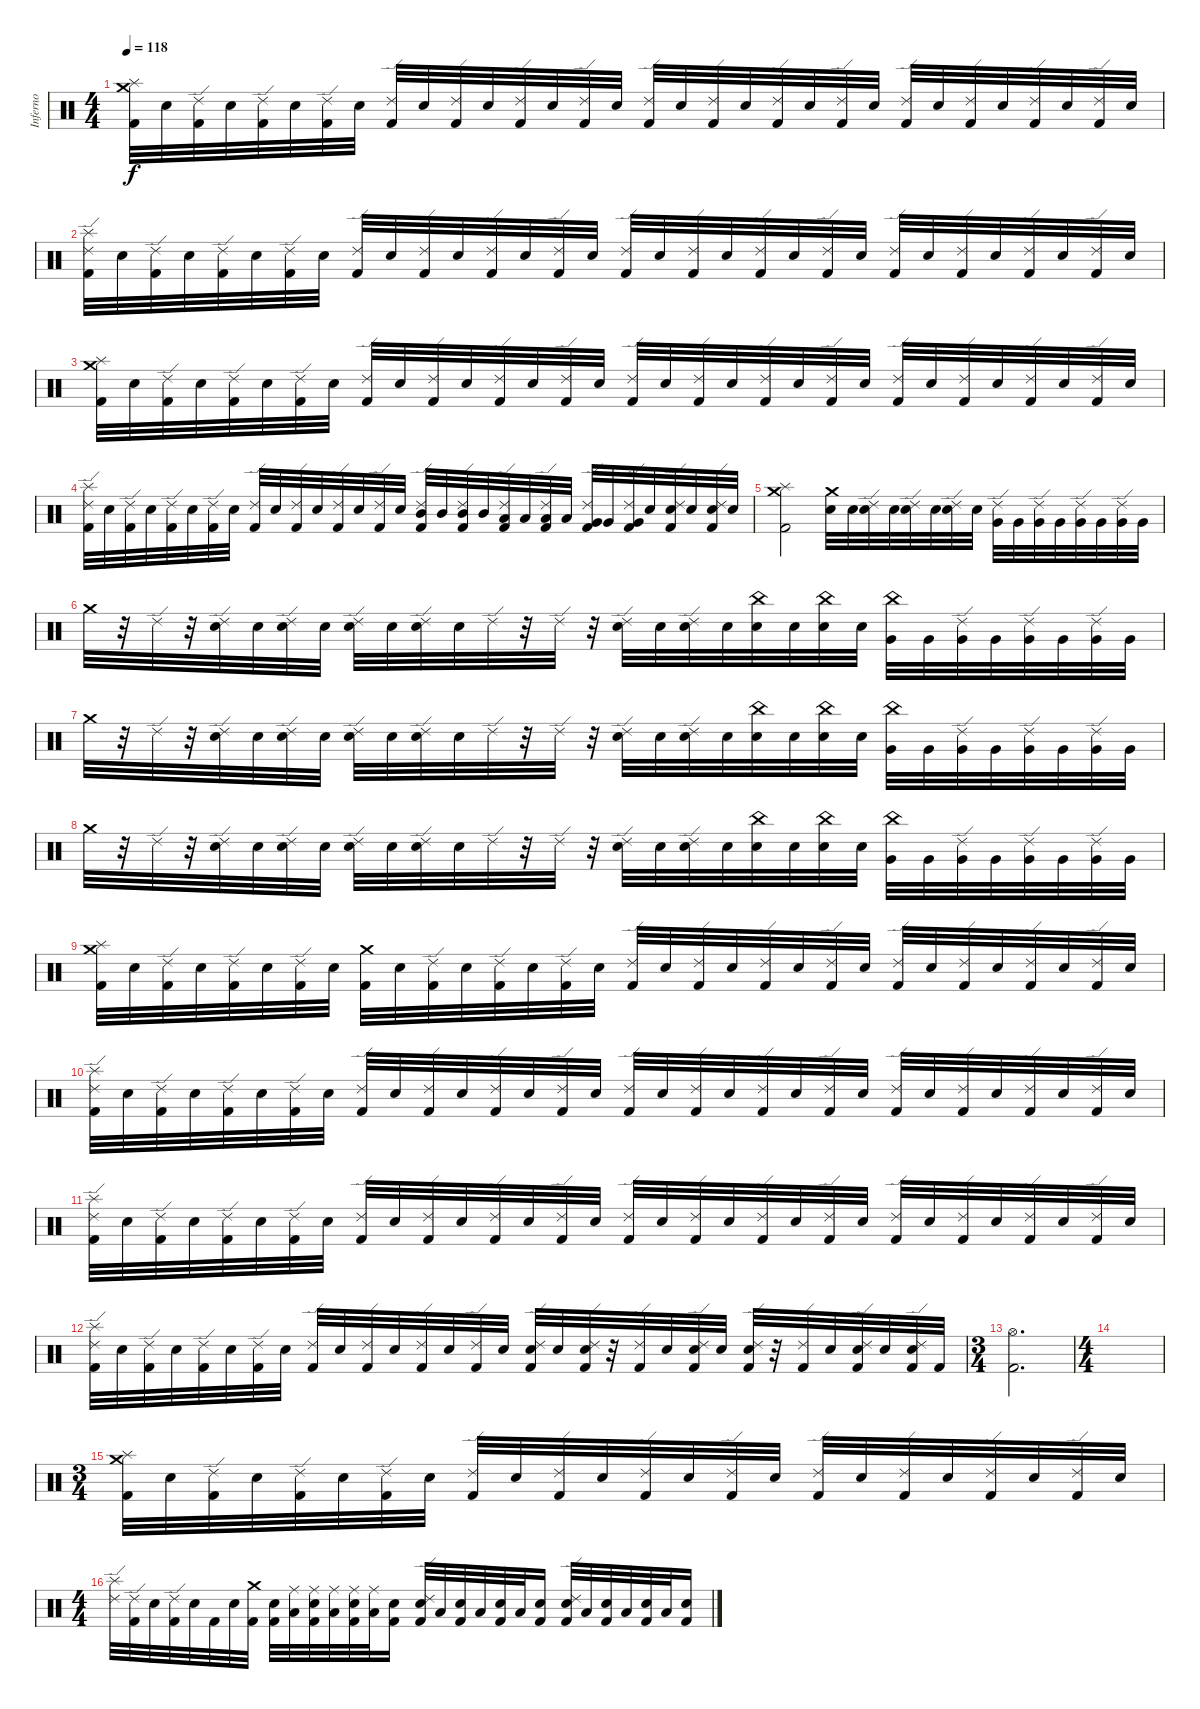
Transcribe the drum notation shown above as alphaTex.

\track ("Inferno" "Inferno") {instrument percussion}
\staff {score}
\articulation defaults
\ts (4 4)
\tempo 118
\clef neutral
\ks c
("Crash medium (hit)" "Splash (hit)" "Kick (hit) 2").32{dy f} "Electric Snare (hit)".32 ("Ride (edge) 2" "Kick (hit) 2").32 "Electric Snare (hit)".32 ("Ride (edge) 2" "Kick (hit) 2").32 "Electric Snare (hit)".32 ("Ride (edge) 2" "Kick (hit) 2").32 "Electric Snare (hit)".32 ("Ride (edge) 2" "Kick (hit) 2").32 "Electric Snare (hit)".32 ("Ride (edge) 2" "Kick (hit) 2").32 "Electric Snare (hit)".32 ("Ride (edge) 2" "Kick (hit) 2").32 "Electric Snare (hit)".32 ("Ride (edge) 2" "Kick (hit) 2").32 "Electric Snare (hit)".32 ("Ride (edge) 2" "Kick (hit) 2").32 "Electric Snare (hit)".32 ("Ride (edge) 2" "Kick (hit) 2").32 "Electric Snare (hit)".32 ("Ride (edge) 2" "Kick (hit) 2").32 "Electric Snare (hit)".32 ("Ride (edge) 2" "Kick (hit) 2").32 "Electric Snare (hit)".32 ("Ride (edge) 2" "Kick (hit) 2").32 "Electric Snare (hit)".32 ("Ride (edge) 2" "Kick (hit) 2").32 "Electric Snare (hit)".32 ("Ride (edge) 2" "Kick (hit) 2").32 "Electric Snare (hit)".32 ("Ride (edge) 2" "Kick (hit) 2").32 "Electric Snare (hit)".32 |
("Ride (edge) 2" "Splash (hit)" "Kick (hit) 2").32 "Electric Snare (hit)".32 ("Ride (edge) 2" "Kick (hit) 2").32 "Electric Snare (hit)".32 ("Ride (edge) 2" "Kick (hit) 2").32 "Electric Snare (hit)".32 ("Ride (edge) 2" "Kick (hit) 2").32 "Electric Snare (hit)".32 ("Ride (edge) 2" "Kick (hit) 2").32 "Electric Snare (hit)".32 ("Ride (edge) 2" "Kick (hit) 2").32 "Electric Snare (hit)".32 ("Ride (edge) 2" "Kick (hit) 2").32 "Electric Snare (hit)".32 ("Ride (edge) 2" "Kick (hit) 2").32 "Electric Snare (hit)".32 ("Ride (edge) 2" "Kick (hit) 2").32 "Electric Snare (hit)".32 ("Ride (edge) 2" "Kick (hit) 2").32 "Electric Snare (hit)".32 ("Ride (edge) 2" "Kick (hit) 2").32 "Electric Snare (hit)".32 ("Ride (edge) 2" "Kick (hit) 2").32 "Electric Snare (hit)".32 ("Ride (edge) 2" "Kick (hit) 2").32 "Electric Snare (hit)".32 ("Ride (edge) 2" "Kick (hit) 2").32 "Electric Snare (hit)".32 ("Ride (edge) 2" "Kick (hit) 2").32 "Electric Snare (hit)".32 ("Ride (edge) 2" "Kick (hit) 2").32 "Electric Snare (hit)".32 |
("Crash medium (hit)" "Splash (hit)" "Kick (hit) 2").32 "Electric Snare (hit)".32 ("Ride (edge) 2" "Kick (hit) 2").32 "Electric Snare (hit)".32 ("Ride (edge) 2" "Kick (hit) 2").32 "Electric Snare (hit)".32 ("Ride (edge) 2" "Kick (hit) 2").32 "Electric Snare (hit)".32 ("Ride (edge) 2" "Kick (hit) 2").32 "Electric Snare (hit)".32 ("Ride (edge) 2" "Kick (hit) 2").32 "Electric Snare (hit)".32 ("Ride (edge) 2" "Kick (hit) 2").32 "Electric Snare (hit)".32 ("Ride (edge) 2" "Kick (hit) 2").32 "Electric Snare (hit)".32 ("Ride (edge) 2" "Kick (hit) 2").32 "Electric Snare (hit)".32 ("Ride (edge) 2" "Kick (hit) 2").32 "Electric Snare (hit)".32 ("Ride (edge) 2" "Kick (hit) 2").32 "Electric Snare (hit)".32 ("Ride (edge) 2" "Kick (hit) 2").32 "Electric Snare (hit)".32 ("Ride (edge) 2" "Kick (hit) 2").32 "Electric Snare (hit)".32 ("Ride (edge) 2" "Kick (hit) 2").32 "Electric Snare (hit)".32 ("Ride (edge) 2" "Kick (hit) 2").32 "Electric Snare (hit)".32 ("Ride (edge) 2" "Kick (hit) 2").32 "Electric Snare (hit)".32 |
("Ride (edge) 2" "Splash (hit)" "Kick (hit) 2").32 "Electric Snare (hit)".32 ("Ride (edge) 2" "Kick (hit) 2").32 "Electric Snare (hit)".32 ("Ride (edge) 2" "Kick (hit) 2").32 "Electric Snare (hit)".32 ("Ride (edge) 2" "Kick (hit) 2").32 "Electric Snare (hit)".32 ("Ride (edge) 2" "Kick (hit) 2").32 "Electric Snare (hit)".32 ("Ride (edge) 2" "Kick (hit) 2").32 "Electric Snare (hit)".32 ("Ride (edge) 2" "Kick (hit) 2").32 "Electric Snare (hit)".32 ("Ride (edge) 2" "Kick (hit) 2").32 "Electric Snare (hit)".32 ("Ride (edge) 2" "Mid Tom (hit)" "Kick (hit) 2").32 "Mid Tom (hit)".32 ("Ride (edge) 2" "Mid Tom (hit)" "Kick (hit) 2").32 "Mid Tom (hit)".32 ("Ride (edge) 2" "Low Tom (hit)" "Kick (hit) 2").32 "Low Tom (hit)".32 ("Ride (edge) 2" "Low Tom (hit)" "Kick (hit) 2").32 "Low Tom (hit)".32 ("Ride (edge) 2" "Very Low Tom (hit)" "Kick (hit) 2").32 "Very Low Tom (hit)".32 ("Ride (edge) 2" "Very Low Tom (hit)" "Kick (hit) 2").32 "Electric Snare (hit)".32 ("Ride (edge) 2" "Electric Snare (hit)" "Kick (hit) 2").32 "Electric Snare (hit)".32 ("Ride (edge) 2" "Electric Snare (hit)" "Kick (hit) 2").32 "Electric Snare (hit)".32 |
("Crash medium (hit)" "Splash (hit)" "Kick (hit) 2").2 ("Crash medium (hit)" "Electric Snare (hit)").32 "Electric Snare (hit)".32 ("Ride (edge) 2" "Electric Snare (hit)").32 "Electric Snare (hit)".32 ("Ride (edge) 2" "Snare (hit) 2").32 "Snare (hit) 2".32 ("Ride (edge) 2" "Snare (hit) 2").32 "Snare (hit) 2".32 ("Ride (edge) 2" "Very Low Tom (hit)").32 "Very Low Tom (hit)".32 ("Ride (edge) 2" "Very Low Tom (hit)").32 "Very Low Tom (hit)".32 ("Ride (edge) 2" "Very Low Tom (hit)").32 "Very Low Tom (hit)".32 ("Ride (edge) 2" "Very Low Tom (hit)").32 "Very Low Tom (hit)".32 |
"Crash medium (hit)".32 r.32 "Ride (edge) 2".32 r.32 ("Ride (edge) 2" "Electric Snare (hit)").32 "Electric Snare (hit)".32 ("Ride (edge) 2" "Electric Snare (hit)").32 "Electric Snare (hit)".32 ("Ride (edge) 2" "Electric Snare (hit)").32 "Electric Snare (hit)".32 ("Ride (edge) 2" "Electric Snare (hit)").32 "Electric Snare (hit)".32 "Ride (edge) 2".32 r.32 "Ride (edge) 2".32 r.32 ("Ride (edge) 2" "Electric Snare (hit)").32 "Electric Snare (hit)".32 ("Ride (edge) 2" "Electric Snare (hit)").32 "Electric Snare (hit)".32 ("China (hit)" "Snare (hit) 2").32 "Snare (hit) 2".32 ("China (hit)" "Snare (hit) 2").32 "Snare (hit) 2".32 ("China (hit)" "Very Low Tom (hit)").32 "Very Low Tom (hit)".32 ("Ride (edge) 2" "Very Low Tom (hit)").32 "Very Low Tom (hit)".32 ("Ride (edge) 2" "Very Low Tom (hit)").32 "Very Low Tom (hit)".32 ("Ride (edge) 2" "Very Low Tom (hit)").32 "Very Low Tom (hit)".32 |
"Crash medium (hit)".32 r.32 "Ride (edge) 2".32 r.32 ("Ride (edge) 2" "Electric Snare (hit)").32 "Electric Snare (hit)".32 ("Ride (edge) 2" "Electric Snare (hit)").32 "Electric Snare (hit)".32 ("Ride (edge) 2" "Electric Snare (hit)").32 "Electric Snare (hit)".32 ("Ride (edge) 2" "Electric Snare (hit)").32 "Electric Snare (hit)".32 "Ride (edge) 2".32 r.32 "Ride (edge) 2".32 r.32 ("Ride (edge) 2" "Electric Snare (hit)").32 "Electric Snare (hit)".32 ("Ride (edge) 2" "Electric Snare (hit)").32 "Electric Snare (hit)".32 ("China (hit)" "Snare (hit) 2").32 "Snare (hit) 2".32 ("China (hit)" "Snare (hit) 2").32 "Snare (hit) 2".32 ("China (hit)" "Very Low Tom (hit)").32 "Very Low Tom (hit)".32 ("Ride (edge) 2" "Very Low Tom (hit)").32 "Very Low Tom (hit)".32 ("Ride (edge) 2" "Very Low Tom (hit)").32 "Very Low Tom (hit)".32 ("Ride (edge) 2" "Very Low Tom (hit)").32 "Very Low Tom (hit)".32 |
"Crash medium (hit)".32 r.32 "Ride (edge) 2".32 r.32 ("Ride (edge) 2" "Electric Snare (hit)").32 "Electric Snare (hit)".32 ("Ride (edge) 2" "Electric Snare (hit)").32 "Electric Snare (hit)".32 ("Ride (edge) 2" "Electric Snare (hit)").32 "Electric Snare (hit)".32 ("Ride (edge) 2" "Electric Snare (hit)").32 "Electric Snare (hit)".32 "Ride (edge) 2".32 r.32 "Ride (edge) 2".32 r.32 ("Ride (edge) 2" "Electric Snare (hit)").32 "Electric Snare (hit)".32 ("Ride (edge) 2" "Electric Snare (hit)").32 "Electric Snare (hit)".32 ("China (hit)" "Snare (hit) 2").32 "Snare (hit) 2".32 ("China (hit)" "Snare (hit) 2").32 "Snare (hit) 2".32 ("China (hit)" "Very Low Tom (hit)").32 "Very Low Tom (hit)".32 ("Ride (edge) 2" "Very Low Tom (hit)").32 "Very Low Tom (hit)".32 ("Ride (edge) 2" "Very Low Tom (hit)").32 "Very Low Tom (hit)".32 ("Ride (edge) 2" "Very Low Tom (hit)").32 "Very Low Tom (hit)".32 |
("Crash medium (hit)" "Splash (hit)" "Kick (hit) 2").32 "Electric Snare (hit)".32 ("Ride (edge) 2" "Kick (hit) 2").32 "Electric Snare (hit)".32 ("Ride (edge) 2" "Kick (hit) 2").32 "Electric Snare (hit)".32 ("Ride (edge) 2" "Kick (hit) 2").32 "Electric Snare (hit)".32 ("Crash medium (hit)" "Kick (hit) 2").32 "Electric Snare (hit)".32 ("Ride (edge) 2" "Kick (hit) 2").32 "Electric Snare (hit)".32 ("Ride (edge) 2" "Kick (hit) 2").32 "Electric Snare (hit)".32 ("Ride (edge) 2" "Kick (hit) 2").32 "Electric Snare (hit)".32 ("Ride (edge) 2" "Kick (hit) 2").32 "Electric Snare (hit)".32 ("Ride (edge) 2" "Kick (hit) 2").32 "Electric Snare (hit)".32 ("Ride (edge) 2" "Kick (hit) 2").32 "Electric Snare (hit)".32 ("Ride (edge) 2" "Kick (hit) 2").32 "Electric Snare (hit)".32 ("Ride (edge) 2" "Kick (hit) 2").32 "Electric Snare (hit)".32 ("Ride (edge) 2" "Kick (hit) 2").32 "Electric Snare (hit)".32 ("Ride (edge) 2" "Kick (hit) 2").32 "Electric Snare (hit)".32 ("Ride (edge) 2" "Kick (hit) 2").32 "Electric Snare (hit)".32 |
("Ride (edge) 2" "Splash (hit)" "Kick (hit) 2").32 "Electric Snare (hit)".32 ("Ride (edge) 2" "Kick (hit) 2").32 "Electric Snare (hit)".32 ("Ride (edge) 2" "Kick (hit) 2").32 "Electric Snare (hit)".32 ("Ride (edge) 2" "Kick (hit) 2").32 "Electric Snare (hit)".32 ("Ride (edge) 2" "Kick (hit) 2").32 "Electric Snare (hit)".32 ("Ride (edge) 2" "Kick (hit) 2").32 "Electric Snare (hit)".32 ("Ride (edge) 2" "Kick (hit) 2").32 "Electric Snare (hit)".32 ("Ride (edge) 2" "Kick (hit) 2").32 "Electric Snare (hit)".32 ("Ride (edge) 2" "Kick (hit) 2").32 "Electric Snare (hit)".32 ("Ride (edge) 2" "Kick (hit) 2").32 "Electric Snare (hit)".32 ("Ride (edge) 2" "Kick (hit) 2").32 "Electric Snare (hit)".32 ("Ride (edge) 2" "Kick (hit) 2").32 "Electric Snare (hit)".32 ("Ride (edge) 2" "Kick (hit) 2").32 "Electric Snare (hit)".32 ("Ride (edge) 2" "Kick (hit) 2").32 "Electric Snare (hit)".32 ("Ride (edge) 2" "Kick (hit) 2").32 "Electric Snare (hit)".32 ("Ride (edge) 2" "Kick (hit) 2").32 "Electric Snare (hit)".32 |
("Ride (edge) 2" "Splash (hit)" "Kick (hit) 2").32 "Electric Snare (hit)".32 ("Ride (edge) 2" "Kick (hit) 2").32 "Electric Snare (hit)".32 ("Ride (edge) 2" "Kick (hit) 2").32 "Electric Snare (hit)".32 ("Ride (edge) 2" "Kick (hit) 2").32 "Electric Snare (hit)".32 ("Ride (edge) 2" "Kick (hit) 2").32 "Electric Snare (hit)".32 ("Ride (edge) 2" "Kick (hit) 2").32 "Electric Snare (hit)".32 ("Ride (edge) 2" "Kick (hit) 2").32 "Electric Snare (hit)".32 ("Ride (edge) 2" "Kick (hit) 2").32 "Electric Snare (hit)".32 ("Ride (edge) 2" "Kick (hit) 2").32 "Electric Snare (hit)".32 ("Ride (edge) 2" "Kick (hit) 2").32 "Electric Snare (hit)".32 ("Ride (edge) 2" "Kick (hit) 2").32 "Electric Snare (hit)".32 ("Ride (edge) 2" "Kick (hit) 2").32 "Electric Snare (hit)".32 ("Ride (edge) 2" "Kick (hit) 2").32 "Electric Snare (hit)".32 ("Ride (edge) 2" "Kick (hit) 2").32 "Electric Snare (hit)".32 ("Ride (edge) 2" "Kick (hit) 2").32 "Electric Snare (hit)".32 ("Ride (edge) 2" "Kick (hit) 2").32 "Electric Snare (hit)".32 |
("Ride (edge) 2" "Splash (hit)" "Kick (hit) 2").32 "Electric Snare (hit)".32 ("Ride (edge) 2" "Kick (hit) 2").32 "Electric Snare (hit)".32 ("Ride (edge) 2" "Kick (hit) 2").32 "Electric Snare (hit)".32 ("Ride (edge) 2" "Kick (hit) 2").32 "Electric Snare (hit)".32 ("Ride (edge) 2" "Kick (hit) 2").32 "Electric Snare (hit)".32 ("Ride (edge) 2" "Kick (hit) 2").32 "Electric Snare (hit)".32 ("Ride (edge) 2" "Kick (hit) 2").32 "Electric Snare (hit)".32 ("Ride (edge) 2" "Kick (hit) 2").32 "Electric Snare (hit)".32 ("Ride (edge) 2" "Electric Snare (hit)" "Kick (hit) 2").32 "Electric Snare (hit)".32 ("Ride (edge) 2" "Electric Snare (hit)" "Kick (hit) 2").32 r.32 ("Ride (edge) 2" "Kick (hit) 2").32 "Electric Snare (hit)".32 ("Ride (edge) 2" "Electric Snare (hit)" "Kick (hit) 2").32 "Electric Snare (hit)".32 ("Ride (edge) 2" "Electric Snare (hit)" "Kick (hit) 2").32 r.32 ("Ride (edge) 2" "Kick (hit) 2").32 "Electric Snare (hit)".32 ("Ride (edge) 2" "Electric Snare (hit)" "Kick (hit) 2").32 "Electric Snare (hit)".32 ("Ride (edge) 2" "Electric Snare (hit)" "Kick (hit) 2").32 "Kick (hit) 2".32 |
\ts (3 4)
("Hi-Hat (open)" "Kick (hit) 2").2{d} |
\ts (4 4)
|
\ts (3 4)
("Crash medium (hit)" "Splash (hit)" "Kick (hit) 2").32 "Electric Snare (hit)".32 ("Ride (edge) 2" "Kick (hit) 2").32 "Electric Snare (hit)".32 ("Ride (edge) 2" "Kick (hit) 2").32 "Electric Snare (hit)".32 ("Ride (edge) 2" "Kick (hit) 2").32 "Electric Snare (hit)".32 ("Ride (edge) 2" "Kick (hit) 2").32 "Electric Snare (hit)".32 ("Ride (edge) 2" "Kick (hit) 2").32 "Electric Snare (hit)".32 ("Ride (edge) 2" "Kick (hit) 2").32 "Electric Snare (hit)".32 ("Ride (edge) 2" "Kick (hit) 2").32 "Electric Snare (hit)".32 ("Ride (edge) 2" "Kick (hit) 2").32 "Electric Snare (hit)".32 ("Ride (edge) 2" "Kick (hit) 2").32 "Electric Snare (hit)".32 ("Ride (edge) 2" "Kick (hit) 2").32 "Electric Snare (hit)".32 ("Ride (edge) 2" "Kick (hit) 2").32 "Electric Snare (hit)".32 |
\ts (4 4)
("Ride (edge) 2" "Splash (hit)").32 ("Ride (edge) 2" "Kick (hit) 2").32 "Electric Snare (hit)".32 ("Ride (edge) 2" "Kick (hit) 2").32 "Electric Snare (hit)".32 "Kick (hit) 2".32 "Electric Snare (hit)".32 ("Crash medium (hit)" "Kick (hit) 2").32 ("Electric Snare (hit)" "Kick (hit) 2").32 ("Ride (middle)" "Low Floor Tom (hit)").32 ("Ride (middle)" "Electric Snare (hit)" "Kick (hit) 2").32 ("Ride (middle)" "Low Floor Tom (hit)").32 ("Ride (middle)" "Electric Snare (hit)" "Kick (hit) 2").32 ("Ride (middle)" "Low Floor Tom (hit)").32 ("Electric Snare (hit)" "Kick (hit) 2").16 ("Ride (edge) 2" "Electric Snare (hit)" "Kick (hit) 2").32 "Low Floor Tom (hit)".32 ("Electric Snare (hit)" "Kick (hit) 2").32 "Low Floor Tom (hit)".32 ("Electric Snare (hit)" "Kick (hit) 2").32 "Low Floor Tom (hit)".32 ("Electric Snare (hit)" "Kick (hit) 2").16 ("Ride (edge) 2" "Electric Snare (hit)" "Kick (hit) 2").32 "Low Floor Tom (hit)".32 ("Electric Snare (hit)" "Kick (hit) 2").32 "Low Floor Tom (hit)".32 ("Electric Snare (hit)" "Kick (hit) 2").32 "Low Floor Tom (hit)".32 ("Electric Snare (hit)" "Kick (hit) 2").16
